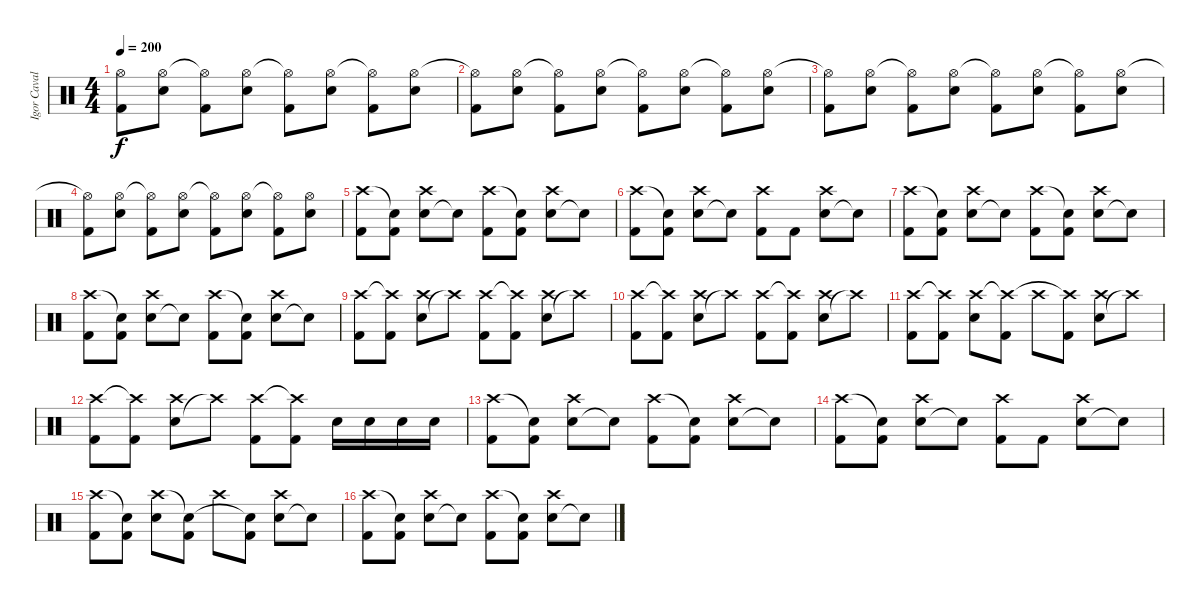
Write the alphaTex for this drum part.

\track ("Igor Cavalera" "Igor Caval") {instrument percussion}
\staff {score}
\articulation defaults
\ts (4 4)
\tempo 200
\clef neutral
\ks c
("Kick (hit) 2" "Hi-Hat (open)"{t}).8{dy f} ("Snare (hit) 2" "Hi-Hat (open)").8 ("Kick (hit) 2" "Hi-Hat (open)"{t}).8 ("Snare (hit) 2" "Hi-Hat (open)").8 ("Kick (hit) 2" "Hi-Hat (open)"{t}).8 ("Snare (hit) 2" "Hi-Hat (open)").8 ("Kick (hit) 2" "Hi-Hat (open)"{t}).8 ("Snare (hit) 2" "Hi-Hat (open)").8 |
("Kick (hit) 2" "Hi-Hat (open)"{t}).8 ("Snare (hit) 2" "Hi-Hat (open)").8 ("Kick (hit) 2" "Hi-Hat (open)"{t}).8 ("Snare (hit) 2" "Hi-Hat (open)").8 ("Kick (hit) 2" "Hi-Hat (open)"{t}).8 ("Snare (hit) 2" "Hi-Hat (open)").8 ("Kick (hit) 2" "Hi-Hat (open)"{t}).8 ("Snare (hit) 2" "Hi-Hat (open)").8 |
("Kick (hit) 2" "Hi-Hat (open)"{t}).8 ("Snare (hit) 2" "Hi-Hat (open)").8 ("Kick (hit) 2" "Hi-Hat (open)"{t}).8 ("Snare (hit) 2" "Hi-Hat (open)").8 ("Kick (hit) 2" "Hi-Hat (open)"{t}).8 ("Snare (hit) 2" "Hi-Hat (open)").8 ("Kick (hit) 2" "Hi-Hat (open)"{t}).8 ("Snare (hit) 2" "Hi-Hat (open)").8 |
("Kick (hit) 2" "Hi-Hat (open)"{t}).8 ("Snare (hit) 2" "Hi-Hat (open)").8 ("Kick (hit) 2" "Hi-Hat (open)"{t}).8 ("Snare (hit) 2" "Hi-Hat (open)").8 ("Kick (hit) 2" "Hi-Hat (open)"{t}).8 ("Snare (hit) 2" "Hi-Hat (open)").8 ("Kick (hit) 2" "Hi-Hat (open)"{t}).8 ("Snare (hit) 2" "Hi-Hat (open)").8 |
("Kick (hit) 2" "Crash high (hit)").8 ("Kick (hit) 2" "Snare (hit)"{t}).8 ("Snare (hit) 2" "Crash high (hit)").8 "Snare (hit)"{t}.8 ("Kick (hit) 2" "Crash high (hit)").8 ("Kick (hit) 2" "Snare (hit)"{t}).8 ("Snare (hit) 2" "Crash high (hit)").8 "Snare (hit)"{t}.8 |
("Kick (hit) 2" "Crash high (hit)").8 ("Kick (hit) 2" "Snare (hit)"{t}).8 ("Snare (hit) 2" "Crash high (hit)").8 "Snare (hit)"{t}.8 ("Kick (hit) 2" "Crash high (hit)").8 "Kick (hit) 2".8 ("Snare (hit) 2" "Crash high (hit)").8 "Snare (hit)"{t}.8 |
("Kick (hit) 2" "Crash high (hit)").8 ("Kick (hit) 2" "Snare (hit)"{t}).8 ("Snare (hit) 2" "Crash high (hit)").8 "Snare (hit)"{t}.8 ("Kick (hit) 2" "Crash high (hit)").8 ("Kick (hit) 2" "Snare (hit)"{t}).8 ("Snare (hit) 2" "Crash high (hit)").8 "Snare (hit)"{t}.8 |
("Kick (hit) 2" "Crash high (hit)").8 ("Kick (hit) 2" "Snare (hit)"{t}).8 ("Snare (hit) 2" "Crash high (hit)").8 "Snare (hit)"{t}.8 ("Kick (hit) 2" "Crash high (hit)").8 ("Kick (hit) 2" "Snare (hit)"{t}).8 ("Snare (hit) 2" "Crash high (hit)").8 "Snare (hit)"{t}.8 |
("Kick (hit) 2" "Crash high (hit)").8 ("Kick (hit) 2" "Crash high (hit)"{t}).8 ("Snare (hit) 2" "Crash high (hit)").8 "Crash high (hit)"{t}.8 ("Kick (hit) 2" "Crash high (hit)").8 ("Kick (hit) 2" "Crash high (hit)"{t}).8 ("Snare (hit) 2" "Crash high (hit)").8 "Crash high (hit)"{t}.8 |
("Kick (hit) 2" "Crash high (hit)").8 ("Kick (hit) 2" "Crash high (hit)"{t}).8 ("Snare (hit) 2" "Crash high (hit)").8 "Crash high (hit)"{t}.8 ("Kick (hit) 2" "Crash high (hit)").8 ("Kick (hit) 2" "Crash high (hit)"{t}).8 ("Snare (hit) 2" "Crash high (hit)").8 "Crash high (hit)"{t}.8 |
("Kick (hit) 2" "Crash high (hit)").8 ("Kick (hit) 2" "Crash high (hit)"{t}).8 ("Snare (hit) 2" "Crash high (hit)").8 ("Kick (hit) 2" "Crash high (hit)"{t}).8 "Crash high (hit)".8 ("Kick (hit) 2" "Crash high (hit)"{t}).8 ("Snare (hit) 2" "Crash high (hit)").8 "Crash high (hit)"{t}.8 |
("Kick (hit) 2" "Crash high (hit)").8 ("Kick (hit) 2" "Crash high (hit)"{t}).8 ("Snare (hit) 2" "Crash high (hit)").8 "Crash high (hit)"{t}.8 ("Kick (hit) 2" "Crash high (hit)").8 ("Kick (hit) 2" "Crash high (hit)"{t}).8 "Snare (hit) 2".16 "Snare (hit) 2".16 "Snare (hit) 2".16 "Snare (hit) 2".16 |
("Kick (hit) 2" "Crash high (hit)").8 ("Kick (hit) 2" "Snare (hit)"{t}).8 ("Snare (hit) 2" "Crash high (hit)").8 "Snare (hit)"{t}.8 ("Kick (hit) 2" "Crash high (hit)").8 ("Kick (hit) 2" "Snare (hit)"{t}).8 ("Snare (hit) 2" "Crash high (hit)").8 "Snare (hit)"{t}.8 |
("Kick (hit) 2" "Crash high (hit)").8 ("Kick (hit) 2" "Snare (hit)"{t}).8 ("Snare (hit) 2" "Crash high (hit)").8 "Snare (hit)"{t}.8 ("Kick (hit) 2" "Crash high (hit)").8 "Kick (hit) 2".8 ("Snare (hit) 2" "Crash high (hit)").8 "Snare (hit)"{t}.8 |
("Kick (hit) 2" "Crash high (hit)").8 ("Kick (hit) 2" "Snare (hit)"{t}).8 ("Snare (hit) 2" "Crash high (hit)").8 ("Kick (hit) 2" "Snare (hit)"{t}).8 "Crash high (hit)".8 ("Kick (hit) 2" "Snare (hit)"{t}).8 ("Snare (hit) 2" "Crash high (hit)").8 "Snare (hit)"{t}.8 |
("Kick (hit) 2" "Crash high (hit)").8 ("Kick (hit) 2" "Snare (hit)"{t}).8 ("Snare (hit) 2" "Crash high (hit)").8 "Snare (hit)"{t}.8 ("Kick (hit) 2" "Crash high (hit)").8 ("Kick (hit) 2" "Snare (hit)"{t}).8 ("Snare (hit) 2" "Crash high (hit)").8 "Snare (hit)"{t}.8
